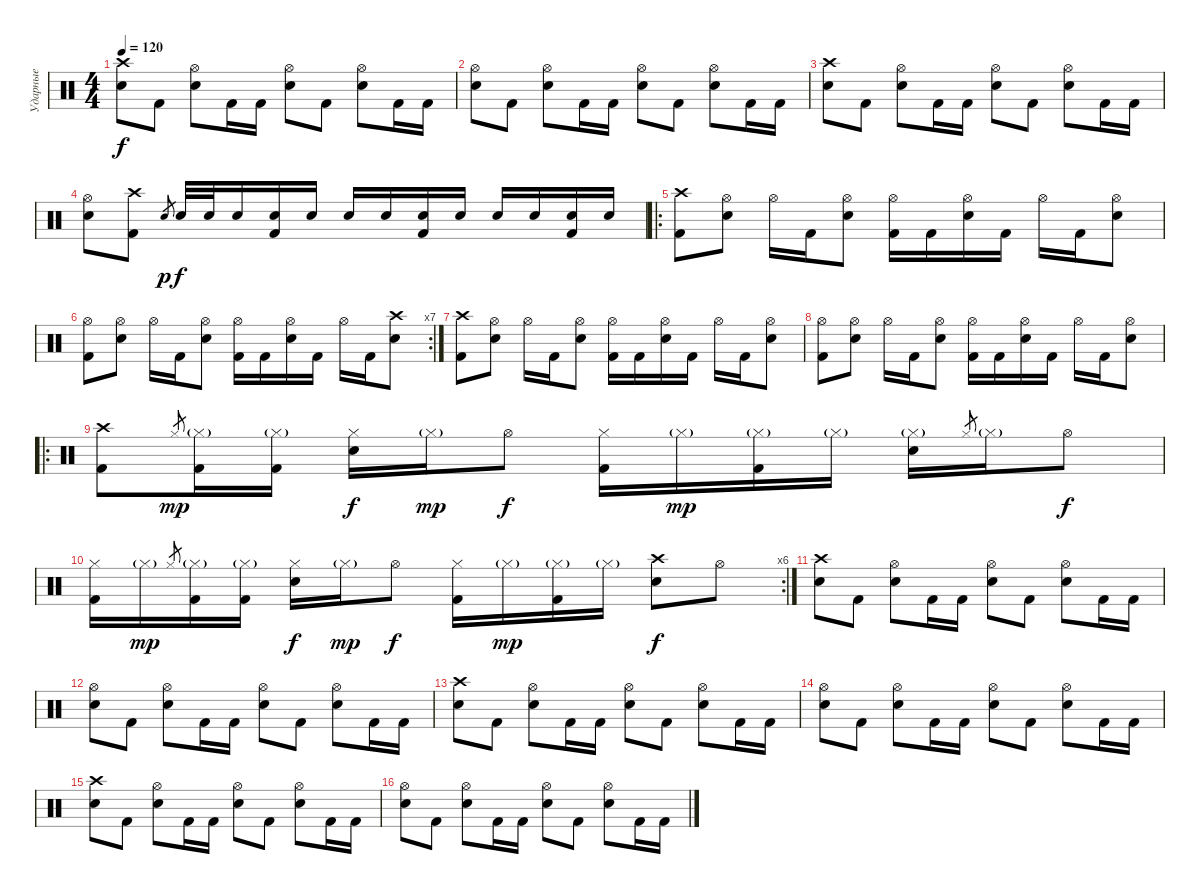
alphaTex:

\track ("Ударные" "Ударные") {instrument percussion}
\staff {score}
\articulation defaults
\ts (4 4)
\tempo 120
\clef neutral
\ks c
("Electric Snare (hit)" "Crash high (hit)").8{dy f} "Kick (hit) 2".8 ("Electric Snare (hit)" "Hi-Hat (open)").8 "Kick (hit) 2".16 "Kick (hit) 2".16 ("Electric Snare (hit)" "Hi-Hat (open)").8 "Kick (hit) 2".8 ("Electric Snare (hit)" "Hi-Hat (open)").8 "Kick (hit) 2".16 "Kick (hit) 2".16 |
("Electric Snare (hit)" "Hi-Hat (open)").8 "Kick (hit) 2".8 ("Electric Snare (hit)" "Hi-Hat (open)").8 "Kick (hit) 2".16 "Kick (hit) 2".16 ("Electric Snare (hit)" "Hi-Hat (open)").8 "Kick (hit) 2".8 ("Electric Snare (hit)" "Hi-Hat (open)").8 "Kick (hit) 2".16 "Kick (hit) 2".16 |
("Electric Snare (hit)" "Crash high (hit)").8 "Kick (hit) 2".8 ("Electric Snare (hit)" "Hi-Hat (open)").8 "Kick (hit) 2".16 "Kick (hit) 2".16 ("Electric Snare (hit)" "Hi-Hat (open)").8 "Kick (hit) 2".8 ("Electric Snare (hit)" "Hi-Hat (open)").8 "Kick (hit) 2".16 "Kick (hit) 2".16 |
("Electric Snare (hit)" "Hi-Hat (open)").8 ("Kick (hit) 2" "Crash high (hit)").8 "Electric Snare (hit)".8{gr dy p} "Electric Snare (hit)".32{dy f} "Electric Snare (hit)".32 "Electric Snare (hit)".16 ("Electric Snare (hit)" "Kick (hit) 2").16 "Electric Snare (hit)".16 "Electric Snare (hit)".16 "Electric Snare (hit)".16 ("Electric Snare (hit)" "Kick (hit) 2").16 "Electric Snare (hit)".16 "Electric Snare (hit)".16 "Electric Snare (hit)".16 ("Electric Snare (hit)" "Kick (hit) 2").16 "Electric Snare (hit)".16 |
\ro
("Kick (hit) 2" "Crash high (hit)").8 ("Electric Snare (hit)" "Hi-Hat (open)").8 "Hi-Hat (open)".16 "Kick (hit) 2".16 ("Electric Snare (hit)" "Hi-Hat (open)").8 ("Kick (hit) 2" "Hi-Hat (open)").16 "Kick (hit) 2".16 ("Electric Snare (hit)" "Hi-Hat (open)").16 "Kick (hit) 2".16 "Hi-Hat (open)".16 "Kick (hit) 2".16 ("Electric Snare (hit)" "Hi-Hat (open)").8 |
\rc 7
("Kick (hit) 2" "Hi-Hat (open)").8 ("Electric Snare (hit)" "Hi-Hat (open)").8 "Hi-Hat (open)".16 "Kick (hit) 2".16 ("Electric Snare (hit)" "Hi-Hat (open)").8 ("Kick (hit) 2" "Hi-Hat (open)").16 "Kick (hit) 2".16 ("Electric Snare (hit)" "Hi-Hat (open)").16 "Kick (hit) 2".16 "Hi-Hat (open)".16 "Kick (hit) 2".16 ("Electric Snare (hit)" "Crash high (hit)").8 |
("Kick (hit) 2" "Crash high (hit)").8 ("Electric Snare (hit)" "Hi-Hat (open)").8 "Hi-Hat (open)".16 "Kick (hit) 2".16 ("Electric Snare (hit)" "Hi-Hat (open)").8 ("Kick (hit) 2" "Hi-Hat (open)").16 "Kick (hit) 2".16 ("Electric Snare (hit)" "Hi-Hat (open)").16 "Kick (hit) 2".16 "Hi-Hat (open)".16 "Kick (hit) 2".16 ("Electric Snare (hit)" "Hi-Hat (open)").8 |
("Kick (hit) 2" "Hi-Hat (open)").8 ("Electric Snare (hit)" "Hi-Hat (open)").8 "Hi-Hat (open)".16 "Kick (hit) 2".16 ("Electric Snare (hit)" "Hi-Hat (open)").8 ("Kick (hit) 2" "Hi-Hat (open)").16 "Kick (hit) 2".16 ("Electric Snare (hit)" "Hi-Hat (open)").16 "Kick (hit) 2".16 "Hi-Hat (open)".16 "Kick (hit) 2".16 ("Electric Snare (hit)" "Hi-Hat (open)").8 |
\ro
("Kick (hit) 2" "Crash high (hit)").8 "Hi-Hat (closed)".8{gr dy mp} ("Kick (hit) 2" "Hi-Hat (closed)"{g}).16 ("Kick (hit) 2" "Hi-Hat (closed)"{g}).16 ("Electric Snare (hit)" "Hi-Hat (closed)").16{dy f} "Hi-Hat (closed)"{g}.16{dy mp} "Hi-Hat (open)".8{dy f} ("Kick (hit) 2" "Hi-Hat (closed)").16 "Hi-Hat (closed)"{g}.16{dy mp} ("Kick (hit) 2" "Hi-Hat (closed)"{g}).16 "Hi-Hat (closed)"{g}.16 ("Electric Snare (hit)" "Hi-Hat (closed)"{g}).16 "Hi-Hat (closed)".8{gr} "Hi-Hat (closed)"{g}.16 "Hi-Hat (open)".8{dy f} |
\rc 6
("Kick (hit) 2" "Hi-Hat (closed)").16 "Hi-Hat (closed)"{g}.16{dy mp} "Hi-Hat (closed)".8{gr} ("Kick (hit) 2" "Hi-Hat (closed)"{g}).16 ("Kick (hit) 2" "Hi-Hat (closed)"{g}).16 ("Electric Snare (hit)" "Hi-Hat (closed)").16{dy f} "Hi-Hat (closed)"{g}.16{dy mp} "Hi-Hat (open)".8{dy f} ("Kick (hit) 2" "Hi-Hat (closed)").16 "Hi-Hat (closed)"{g}.16{dy mp} ("Kick (hit) 2" "Hi-Hat (closed)"{g}).16 "Hi-Hat (closed)"{g}.16 ("Electric Snare (hit)" "Crash high (hit)").8{dy f} "Hi-Hat (open)".8 |
("Electric Snare (hit)" "Crash high (hit)").8 "Kick (hit) 2".8 ("Electric Snare (hit)" "Hi-Hat (open)").8 "Kick (hit) 2".16 "Kick (hit) 2".16 ("Electric Snare (hit)" "Hi-Hat (open)").8 "Kick (hit) 2".8 ("Electric Snare (hit)" "Hi-Hat (open)").8 "Kick (hit) 2".16 "Kick (hit) 2".16 |
("Electric Snare (hit)" "Hi-Hat (open)").8 "Kick (hit) 2".8 ("Electric Snare (hit)" "Hi-Hat (open)").8 "Kick (hit) 2".16 "Kick (hit) 2".16 ("Electric Snare (hit)" "Hi-Hat (open)").8 "Kick (hit) 2".8 ("Electric Snare (hit)" "Hi-Hat (open)").8 "Kick (hit) 2".16 "Kick (hit) 2".16 |
("Electric Snare (hit)" "Crash high (hit)").8 "Kick (hit) 2".8 ("Electric Snare (hit)" "Hi-Hat (open)").8 "Kick (hit) 2".16 "Kick (hit) 2".16 ("Electric Snare (hit)" "Hi-Hat (open)").8 "Kick (hit) 2".8 ("Electric Snare (hit)" "Hi-Hat (open)").8 "Kick (hit) 2".16 "Kick (hit) 2".16 |
("Electric Snare (hit)" "Hi-Hat (open)").8 "Kick (hit) 2".8 ("Electric Snare (hit)" "Hi-Hat (open)").8 "Kick (hit) 2".16 "Kick (hit) 2".16 ("Electric Snare (hit)" "Hi-Hat (open)").8 "Kick (hit) 2".8 ("Electric Snare (hit)" "Hi-Hat (open)").8 "Kick (hit) 2".16 "Kick (hit) 2".16 |
("Electric Snare (hit)" "Crash high (hit)").8 "Kick (hit) 2".8 ("Electric Snare (hit)" "Hi-Hat (open)").8 "Kick (hit) 2".16 "Kick (hit) 2".16 ("Electric Snare (hit)" "Hi-Hat (open)").8 "Kick (hit) 2".8 ("Electric Snare (hit)" "Hi-Hat (open)").8 "Kick (hit) 2".16 "Kick (hit) 2".16 |
("Electric Snare (hit)" "Hi-Hat (open)").8 "Kick (hit) 2".8 ("Electric Snare (hit)" "Hi-Hat (open)").8 "Kick (hit) 2".16 "Kick (hit) 2".16 ("Electric Snare (hit)" "Hi-Hat (open)").8 "Kick (hit) 2".8 ("Electric Snare (hit)" "Hi-Hat (open)").8 "Kick (hit) 2".16 "Kick (hit) 2".16
